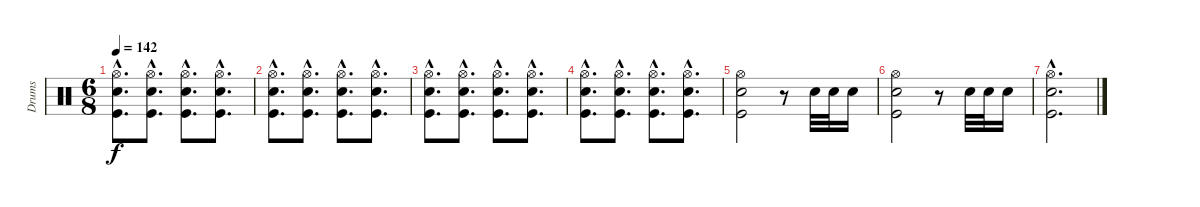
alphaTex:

\track ("Drums" "Drums") {instrument percussion}
\staff {score}
\articulation defaults
\ts (6 8)
\tempo 142
\clef neutral
\ks c
("Hi-Hat (open)"{hac} "Snare (hit) 2"{hac} "Kick (hit)"{hac}).8{d dy f} ("Hi-Hat (open)"{hac} "Snare (hit) 2"{hac} "Kick (hit)"{hac}).8{d} ("Hi-Hat (open)"{hac} "Snare (hit) 2"{hac} "Kick (hit)"{hac}).8{d} ("Hi-Hat (open)"{hac} "Snare (hit) 2"{hac} "Kick (hit)"{hac}).8{d} |
("Hi-Hat (open)"{hac} "Snare (hit) 2"{hac} "Kick (hit)"{hac}).8{d} ("Hi-Hat (open)"{hac} "Snare (hit) 2"{hac} "Kick (hit)"{hac}).8{d} ("Hi-Hat (open)"{hac} "Snare (hit) 2"{hac} "Kick (hit)"{hac}).8{d} ("Hi-Hat (open)"{hac} "Snare (hit) 2"{hac} "Kick (hit)"{hac}).8{d} |
("Hi-Hat (open)"{hac} "Snare (hit) 2"{hac} "Kick (hit)"{hac}).8{d} ("Hi-Hat (open)"{hac} "Snare (hit) 2"{hac} "Kick (hit)"{hac}).8{d} ("Hi-Hat (open)"{hac} "Snare (hit) 2"{hac} "Kick (hit)"{hac}).8{d} ("Hi-Hat (open)"{hac} "Snare (hit) 2"{hac} "Kick (hit)"{hac}).8{d} |
("Hi-Hat (open)"{hac} "Snare (hit) 2"{hac} "Kick (hit)"{hac}).8{d} ("Hi-Hat (open)"{hac} "Snare (hit) 2"{hac} "Kick (hit)"{hac}).8{d} ("Hi-Hat (open)"{hac} "Snare (hit) 2"{hac} "Kick (hit)"{hac}).8{d} ("Hi-Hat (open)"{hac} "Snare (hit) 2"{hac} "Kick (hit)"{hac}).8{d} |
("Hi-Hat (open)" "Snare (hit) 2" "Kick (hit)").2 r.8 "Snare (hit) 2".32 "Snare (hit) 2".32 "Snare (hit) 2".16 |
("Hi-Hat (open)" "Snare (hit) 2" "Kick (hit)").2 r.8 "Snare (hit) 2".32 "Snare (hit) 2".32 "Snare (hit) 2".16 |
("Hi-Hat (open)"{hac} "Snare (hit) 2"{hac} "Kick (hit)"{hac}).2{d}
